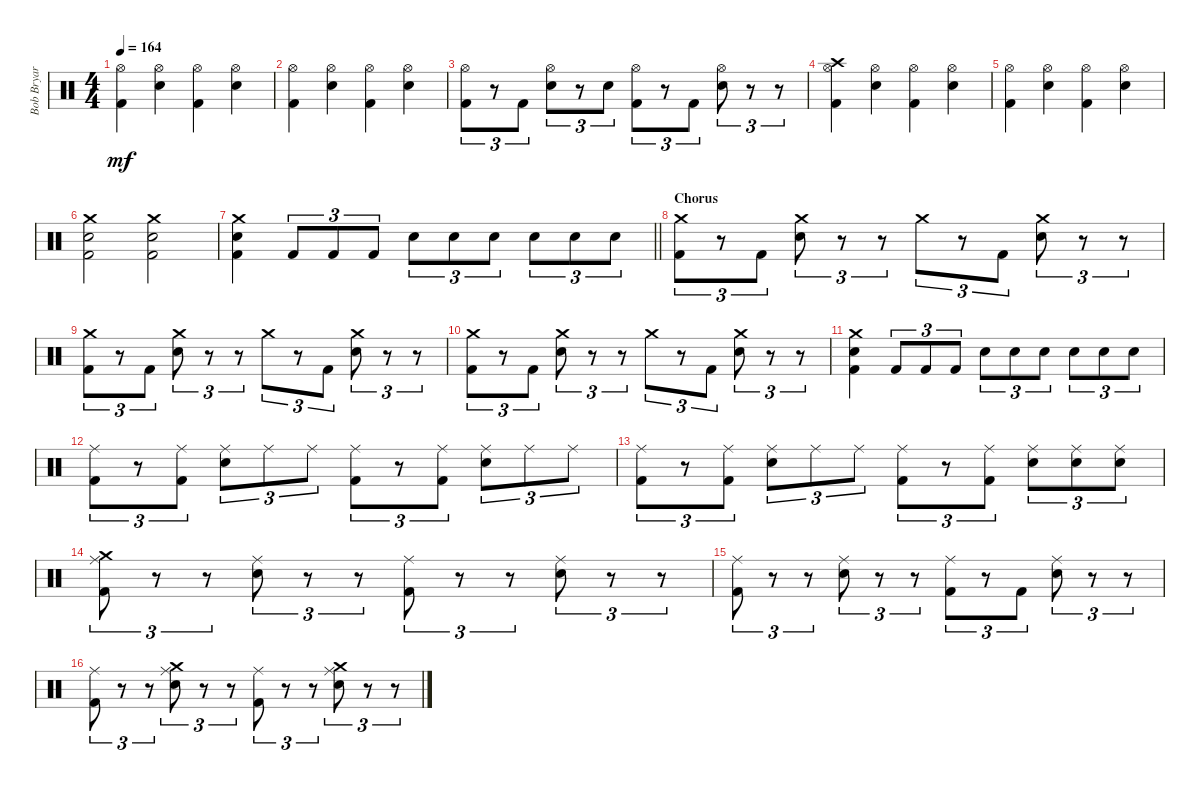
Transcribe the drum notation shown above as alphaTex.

\track ("Bob Bryar" "Bob Bryar") {instrument percussion}
\staff {score}
\articulation defaults
\ts (4 4)
\tempo 164
\clef neutral
\ks c
("Hi-Hat (open)" "Kick (hit) 2").4{dy mf} ("Hi-Hat (open)" "Electric Snare (hit)").4 ("Hi-Hat (open)" "Kick (hit) 2").4 ("Hi-Hat (open)" "Electric Snare (hit)").4 |
("Hi-Hat (open)" "Kick (hit) 2").4 ("Hi-Hat (open)" "Electric Snare (hit)").4 ("Hi-Hat (open)" "Kick (hit) 2").4 ("Hi-Hat (open)" "Electric Snare (hit)").4 |
("Hi-Hat (open)" "Kick (hit) 2").8{tu (3 2)} r.8{tu (3 2)} "Kick (hit) 2".8{tu (3 2)} ("Hi-Hat (open)" "Electric Snare (hit)").8{tu (3 2)} r.8{tu (3 2)} "Electric Snare (hit)".8{tu (3 2)} ("Hi-Hat (open)" "Kick (hit) 2").8{tu (3 2)} r.8{tu (3 2)} "Kick (hit) 2".8{tu (3 2)} ("Hi-Hat (open)" "Electric Snare (hit)").8{tu (3 2)} r.8{tu (3 2)} r.8{tu (3 2)} |
("Crash high (hit)" "Hi-Hat (open)" "Kick (hit) 2").4 ("Hi-Hat (open)" "Electric Snare (hit)").4 ("Hi-Hat (open)" "Kick (hit) 2").4 ("Hi-Hat (open)" "Electric Snare (hit)").4 |
("Hi-Hat (open)" "Kick (hit) 2").4 ("Hi-Hat (open)" "Electric Snare (hit)").4 ("Hi-Hat (open)" "Kick (hit) 2").4 ("Hi-Hat (open)" "Electric Snare (hit)").4 |
("Crash medium (hit)" "Electric Snare (hit)" "Kick (hit) 2").2 ("Crash medium (hit)" "Electric Snare (hit)" "Kick (hit) 2").2 |
\barLineRight lightlight
("Crash medium (hit)" "Electric Snare (hit)" "Kick (hit) 2").4 "Kick (hit) 2".8{tu (3 2)} "Kick (hit) 2".8{tu (3 2)} "Kick (hit) 2".8{tu (3 2)} "Electric Snare (hit)".8{tu (3 2)} "Electric Snare (hit)".8{tu (3 2)} "Electric Snare (hit)".8{tu (3 2)} "Electric Snare (hit)".8{tu (3 2)} "Electric Snare (hit)".8{tu (3 2)} "Electric Snare (hit)".8{tu (3 2)} |
\section ("" "Chorus")
("Crash medium (hit)" "Kick (hit) 2").8{tu (3 2)} r.8{tu (3 2)} "Kick (hit) 2".8{tu (3 2)} ("Crash medium (hit)" "Electric Snare (hit)").8{tu (3 2)} r.8{tu (3 2)} r.8{tu (3 2)} "Crash medium (hit)".8{tu (3 2)} r.8{tu (3 2)} "Kick (hit) 2".8{tu (3 2)} ("Crash medium (hit)" "Electric Snare (hit)").8{tu (3 2)} r.8{tu (3 2)} r.8{tu (3 2)} |
("Crash medium (hit)" "Kick (hit) 2").8{tu (3 2)} r.8{tu (3 2)} "Kick (hit) 2".8{tu (3 2)} ("Crash medium (hit)" "Electric Snare (hit)").8{tu (3 2)} r.8{tu (3 2)} r.8{tu (3 2)} "Crash medium (hit)".8{tu (3 2)} r.8{tu (3 2)} "Kick (hit) 2".8{tu (3 2)} ("Crash medium (hit)" "Electric Snare (hit)").8{tu (3 2)} r.8{tu (3 2)} r.8{tu (3 2)} |
("Crash medium (hit)" "Kick (hit) 2").8{tu (3 2)} r.8{tu (3 2)} "Kick (hit) 2".8{tu (3 2)} ("Crash medium (hit)" "Electric Snare (hit)").8{tu (3 2)} r.8{tu (3 2)} r.8{tu (3 2)} "Crash medium (hit)".8{tu (3 2)} r.8{tu (3 2)} "Kick (hit) 2".8{tu (3 2)} ("Crash medium (hit)" "Electric Snare (hit)").8{tu (3 2)} r.8{tu (3 2)} r.8{tu (3 2)} |
("Crash medium (hit)" "Electric Snare (hit)" "Kick (hit) 2").4 "Kick (hit) 2".8{tu (3 2)} "Kick (hit) 2".8{tu (3 2)} "Kick (hit) 2".8{tu (3 2)} "Electric Snare (hit)".8{tu (3 2)} "Electric Snare (hit)".8{tu (3 2)} "Electric Snare (hit)".8{tu (3 2)} "Electric Snare (hit)".8{tu (3 2)} "Electric Snare (hit)".8{tu (3 2)} "Electric Snare (hit)".8{tu (3 2)} |
("Ride (middle)" "Kick (hit) 2").8{tu (3 2)} r.8{tu (3 2)} ("Ride (middle)" "Kick (hit) 2").8{tu (3 2)} ("Ride (middle)" "Electric Snare (hit)").8{tu (3 2)} "Ride (middle)".8{tu (3 2)} "Ride (middle)".8{tu (3 2)} ("Ride (middle)" "Kick (hit) 2").8{tu (3 2)} r.8{tu (3 2)} ("Ride (middle)" "Kick (hit) 2").8{tu (3 2)} ("Ride (middle)" "Electric Snare (hit)").8{tu (3 2)} "Ride (middle)".8{tu (3 2)} "Ride (middle)".8{tu (3 2)} |
("Ride (middle)" "Kick (hit) 2").8{tu (3 2)} r.8{tu (3 2)} ("Ride (middle)" "Kick (hit) 2").8{tu (3 2)} ("Ride (middle)" "Electric Snare (hit)").8{tu (3 2)} "Ride (middle)".8{tu (3 2)} "Ride (middle)".8{tu (3 2)} ("Ride (middle)" "Kick (hit) 2").8{tu (3 2)} r.8{tu (3 2)} ("Ride (middle)" "Kick (hit) 2").8{tu (3 2)} ("Ride (middle)" "Electric Snare (hit)").8{tu (3 2)} ("Ride (middle)" "Electric Snare (hit)").8{tu (3 2)} ("Ride (middle)" "Electric Snare (hit)").8{tu (3 2)} |
("Crash medium (hit)" "Ride (middle)" "Kick (hit) 2").8{tu (3 2)} r.8{tu (3 2)} r.8{tu (3 2)} ("Ride (middle)" "Electric Snare (hit)").8{tu (3 2)} r.8{tu (3 2)} r.8{tu (3 2)} ("Ride (middle)" "Kick (hit) 2").8{tu (3 2)} r.8{tu (3 2)} r.8{tu (3 2)} ("Ride (middle)" "Electric Snare (hit)").8{tu (3 2)} r.8{tu (3 2)} r.8{tu (3 2)} |
("Ride (middle)" "Kick (hit) 2").8{tu (3 2)} r.8{tu (3 2)} r.8{tu (3 2)} ("Ride (middle)" "Electric Snare (hit)").8{tu (3 2)} r.8{tu (3 2)} r.8{tu (3 2)} ("Ride (middle)" "Kick (hit) 2").8{tu (3 2)} r.8{tu (3 2)} "Kick (hit) 2".8{tu (3 2)} ("Ride (middle)" "Electric Snare (hit)").8{tu (3 2)} r.8{tu (3 2)} r.8{tu (3 2)} |
("Ride (middle)" "Kick (hit) 2").8{tu (3 2)} r.8{tu (3 2)} r.8{tu (3 2)} ("Crash medium (hit)" "Ride (middle)" "Electric Snare (hit)").8{tu (3 2)} r.8{tu (3 2)} r.8{tu (3 2)} ("Ride (middle)" "Kick (hit) 2").8{tu (3 2)} r.8{tu (3 2)} r.8{tu (3 2)} ("Crash medium (hit)" "Ride (middle)" "Electric Snare (hit)").8{tu (3 2)} r.8{tu (3 2)} r.8{tu (3 2)}
